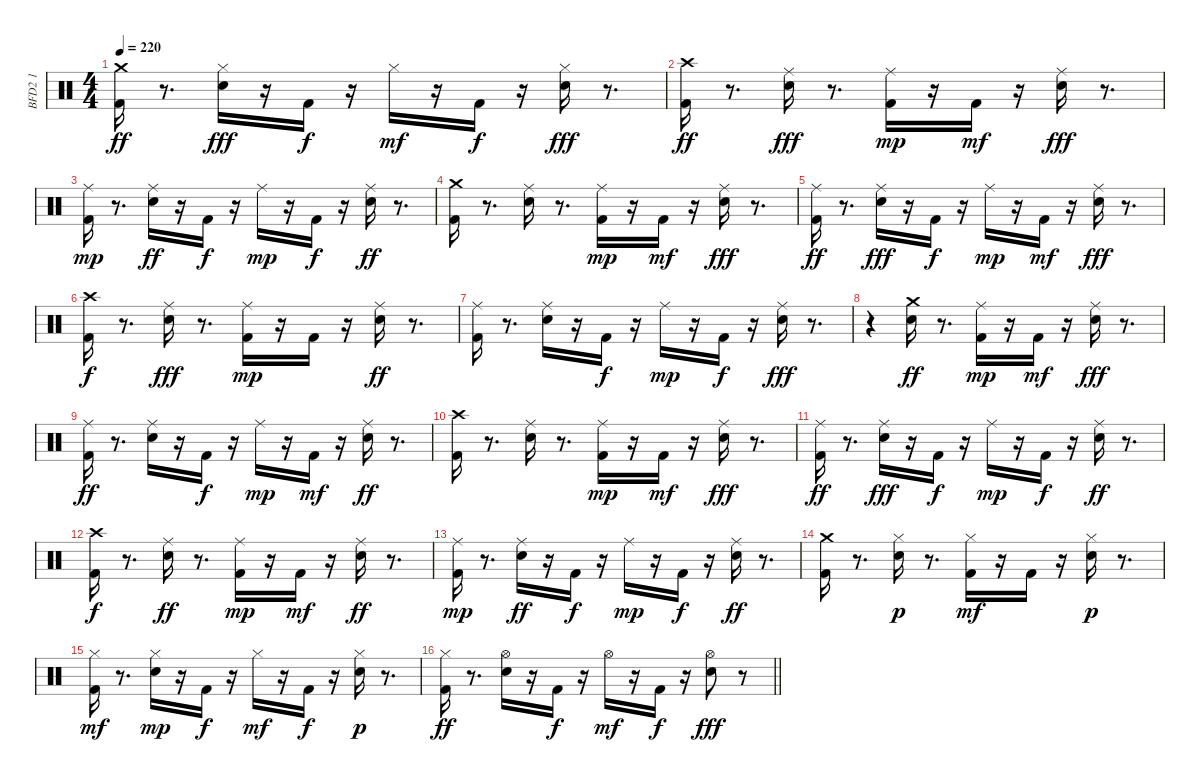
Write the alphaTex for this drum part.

\track ("BFD2 1" "BFD2 1") {instrument percussion}
\staff {score}
\articulation defaults
\ts (4 4)
\tempo 220
\clef neutral
\ks c
("Crash medium (hit)" "Kick (hit) 2").16{dy ff} r.8{d} ("Hi-Hat (closed)" "Snare (hit) 2").16{dy fff} r.16 "Kick (hit) 2".16{dy f} r.16 "Hi-Hat (closed)".16{dy mf} r.16 "Kick (hit) 2".16{dy f} r.16 ("Hi-Hat (closed)" "Snare (hit) 2").16{dy fff} r.8{d} |
("Crash high (hit)" "Kick (hit) 2").16{dy ff} r.8{d} ("Ride (middle)" "Snare (hit) 2").16{dy fff} r.8{d} ("Ride (middle)" "Kick (hit) 2").16{dy mp} r.16 "Kick (hit) 2".16{dy mf} r.16 ("Ride (middle)" "Snare (hit) 2").16{dy fff} r.8{d} |
("Ride (middle)" "Kick (hit) 2").16{dy mp} r.8{d} ("Ride (middle)" "Snare (hit) 2").16{dy ff} r.16 "Kick (hit) 2".16{dy f} r.16 "Ride (middle)".16{dy mp} r.16 "Kick (hit) 2".16{dy f} r.16 ("Ride (middle)" "Snare (hit) 2").16{dy ff} r.8{d} |
("Crash medium (hit)" "Kick (hit) 2").16 r.8{d} ("Ride (middle)" "Snare (hit) 2").16 r.8{d} ("Ride (middle)" "Kick (hit) 2").16{dy mp} r.16 "Kick (hit) 2".16{dy mf} r.16 ("Ride (middle)" "Snare (hit) 2").16{dy fff} r.8{d} |
("Ride (middle)" "Kick (hit) 2").16{dy ff} r.8{d} ("Ride (middle)" "Snare (hit) 2").16{dy fff} r.16 "Kick (hit) 2".16{dy f} r.16 "Ride (middle)".16{dy mp} r.16 "Kick (hit) 2".16{dy mf} r.16 ("Ride (middle)" "Snare (hit) 2").16{dy fff} r.8{d} |
("Crash high (hit)" "Kick (hit) 2").16{dy f} r.8{d} ("Ride (middle)" "Snare (hit) 2").16{dy fff} r.8{d} ("Ride (middle)" "Kick (hit) 2").16{dy mp} r.16 "Kick (hit) 2".16 r.16 ("Ride (middle)" "Snare (hit) 2").16{dy ff} r.8{d} |
("Ride (middle)" "Kick (hit) 2").16 r.8{d} ("Ride (middle)" "Snare (hit) 2").16 r.16 "Kick (hit) 2".16{dy f} r.16 "Ride (middle)".16{dy mp} r.16 "Kick (hit) 2".16{dy f} r.16 ("Ride (middle)" "Snare (hit) 2").16{dy fff} r.8{d} |
r.4 ("Crash medium (hit)" "Snare (hit) 2").16{dy ff} r.8{d} ("Ride (middle)" "Kick (hit) 2").16{dy mp} r.16 "Kick (hit) 2".16{dy mf} r.16 ("Ride (middle)" "Snare (hit) 2").16{dy fff} r.8{d} |
("Ride (middle)" "Kick (hit) 2").16{dy ff} r.8{d} ("Ride (middle)" "Snare (hit) 2").16 r.16 "Kick (hit) 2".16{dy f} r.16 "Ride (middle)".16{dy mp} r.16 "Kick (hit) 2".16{dy mf} r.16 ("Ride (middle)" "Snare (hit) 2").16{dy ff} r.8{d} |
("Crash high (hit)" "Kick (hit) 2").16 r.8{d} ("Ride (middle)" "Snare (hit) 2").16 r.8{d} ("Ride (middle)" "Kick (hit) 2").16{dy mp} r.16 "Kick (hit) 2".16{dy mf} r.16 ("Ride (middle)" "Snare (hit) 2").16{dy fff} r.8{d} |
("Ride (middle)" "Kick (hit) 2").16{dy ff} r.8{d} ("Ride (middle)" "Snare (hit) 2").16{dy fff} r.16 "Kick (hit) 2".16{dy f} r.16 "Ride (middle)".16{dy mp} r.16 "Kick (hit) 2".16{dy f} r.16 ("Ride (middle)" "Snare (hit) 2").16{dy ff} r.8{d} |
("Crash high (hit)" "Kick (hit) 2").16{dy f} r.8{d} ("Ride (middle)" "Snare (hit) 2").16{dy ff} r.8{d} ("Ride (middle)" "Kick (hit) 2").16{dy mp} r.16 "Kick (hit) 2".16{dy mf} r.16 ("Ride (middle)" "Snare (hit) 2").16{dy ff} r.8{d} |
("Ride (middle)" "Kick (hit) 2").16{dy mp} r.8{d} ("Ride (middle)" "Snare (hit) 2").16{dy ff} r.16 "Kick (hit) 2".16{dy f} r.16 "Ride (middle)".16{dy mp} r.16 "Kick (hit) 2".16{dy f} r.16 ("Ride (middle)" "Snare (hit) 2").16{dy ff} r.8{d} |
("Crash medium (hit)" "Kick (hit) 2").16 r.8{d} ("Snare (hit) 2" "Hi-Hat (closed)").16{dy p} r.8{d} ("Kick (hit) 2" "Hi-Hat (closed)").16{dy mf} r.16 "Kick (hit) 2".16 r.16 ("Snare (hit) 2" "Hi-Hat (closed)").16{dy p} r.8{d} |
("Kick (hit) 2" "Hi-Hat (closed)").16{dy mf} r.8{d} ("Snare (hit) 2" "Hi-Hat (closed)").16{dy mp} r.16 "Kick (hit) 2".16{dy f} r.16 "Hi-Hat (closed)".16{dy mf} r.16 "Kick (hit) 2".16{dy f} r.16 ("Snare (hit) 2" "Hi-Hat (closed)").16{dy p} r.8{d} |
\barLineRight lightlight
("Hi-Hat (closed)" "Kick (hit) 2").16{dy ff} r.8{d} ("Hi-Hat (open)" "Snare (hit) 2").16 r.16 "Kick (hit) 2".16{dy f} r.16 "Hi-Hat (open)".16{dy mf} r.16 "Kick (hit) 2".16{dy f} r.16 ("Hi-Hat (open)" "Snare (hit) 2").8{dy fff} r.8
